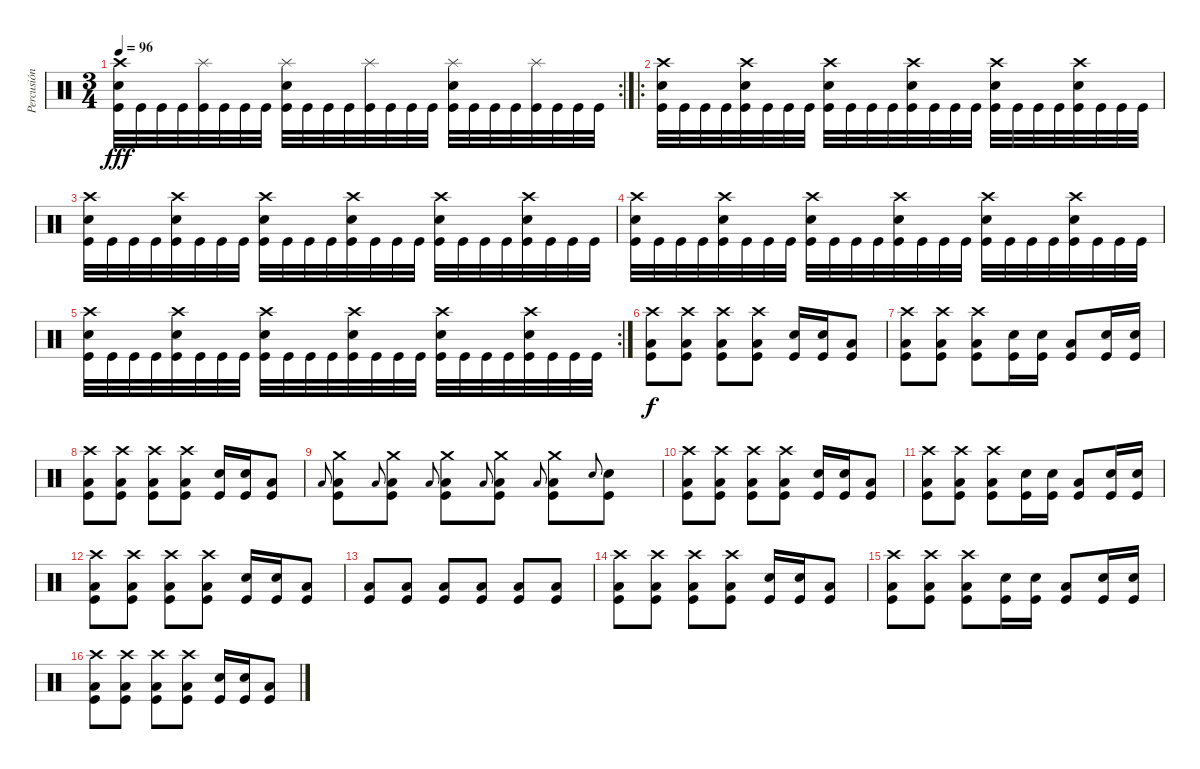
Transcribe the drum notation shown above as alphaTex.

\track ("Percusión" "Percusión") {instrument percussion}
\staff {score}
\articulation defaults
\rc 2
\ts (3 4)
\tempo 96
\clef neutral
\ks c
("Crash high (hit)" "Snare (hit) 2" "Kick (hit)").32{dy fff} "Kick (hit)".32 "Kick (hit)".32 "Kick (hit)".32 ("Splash (hit)" "Kick (hit)").32 "Kick (hit)".32 "Kick (hit)".32 "Kick (hit)".32 ("Splash (hit)" "Snare (hit) 2" "Kick (hit)").32 "Kick (hit)".32 "Kick (hit)".32 "Kick (hit)".32 ("Splash (hit)" "Kick (hit)").32 "Kick (hit)".32 "Kick (hit)".32 "Kick (hit)".32 ("Splash (hit)" "Snare (hit) 2" "Kick (hit)").32 "Kick (hit)".32 "Kick (hit)".32 "Kick (hit)".32 ("Splash (hit)" "Kick (hit)").32 "Kick (hit)".32 "Kick (hit)".32 "Kick (hit)".32 |
\ro
("Crash high (hit)" "Snare (hit) 2" "Kick (hit)").32 "Kick (hit)".32 "Kick (hit)".32 "Kick (hit)".32 ("Crash high (hit)" "Snare (hit) 2" "Kick (hit)").32 "Kick (hit)".32 "Kick (hit)".32 "Kick (hit)".32 ("Crash high (hit)" "Snare (hit) 2" "Kick (hit)").32 "Kick (hit)".32 "Kick (hit)".32 "Kick (hit)".32 ("Crash high (hit)" "Snare (hit) 2" "Kick (hit)").32 "Kick (hit)".32 "Kick (hit)".32 "Kick (hit)".32 ("Crash high (hit)" "Snare (hit) 2" "Kick (hit)").32 "Kick (hit)".32 "Kick (hit)".32 "Kick (hit)".32 ("Crash high (hit)" "Snare (hit) 2" "Kick (hit)").32 "Kick (hit)".32 "Kick (hit)".32 "Kick (hit)".32 |
("Crash high (hit)" "Snare (hit) 2" "Kick (hit)").32 "Kick (hit)".32 "Kick (hit)".32 "Kick (hit)".32 ("Crash high (hit)" "Snare (hit) 2" "Kick (hit)").32 "Kick (hit)".32 "Kick (hit)".32 "Kick (hit)".32 ("Crash high (hit)" "Snare (hit) 2" "Kick (hit)").32 "Kick (hit)".32 "Kick (hit)".32 "Kick (hit)".32 ("Crash high (hit)" "Snare (hit) 2" "Kick (hit)").32 "Kick (hit)".32 "Kick (hit)".32 "Kick (hit)".32 ("Crash high (hit)" "Snare (hit) 2" "Kick (hit)").32 "Kick (hit)".32 "Kick (hit)".32 "Kick (hit)".32 ("Crash high (hit)" "Snare (hit) 2" "Kick (hit)").32 "Kick (hit)".32 "Kick (hit)".32 "Kick (hit)".32 |
("Crash high (hit)" "Snare (hit) 2" "Kick (hit)").32 "Kick (hit)".32 "Kick (hit)".32 "Kick (hit)".32 ("Crash high (hit)" "Snare (hit) 2" "Kick (hit)").32 "Kick (hit)".32 "Kick (hit)".32 "Kick (hit)".32 ("Crash high (hit)" "Snare (hit) 2" "Kick (hit)").32 "Kick (hit)".32 "Kick (hit)".32 "Kick (hit)".32 ("Crash high (hit)" "Snare (hit) 2" "Kick (hit)").32 "Kick (hit)".32 "Kick (hit)".32 "Kick (hit)".32 ("Crash high (hit)" "Snare (hit) 2" "Kick (hit)").32 "Kick (hit)".32 "Kick (hit)".32 "Kick (hit)".32 ("Crash high (hit)" "Snare (hit) 2" "Kick (hit)").32 "Kick (hit)".32 "Kick (hit)".32 "Kick (hit)".32 |
\rc 2
("Crash high (hit)" "Snare (hit) 2" "Kick (hit)").32 "Kick (hit)".32 "Kick (hit)".32 "Kick (hit)".32 ("Crash high (hit)" "Snare (hit) 2" "Kick (hit)").32 "Kick (hit)".32 "Kick (hit)".32 "Kick (hit)".32 ("Crash high (hit)" "Snare (hit) 2" "Kick (hit)").32 "Kick (hit)".32 "Kick (hit)".32 "Kick (hit)".32 ("Crash high (hit)" "Snare (hit) 2" "Kick (hit)").32 "Kick (hit)".32 "Kick (hit)".32 "Kick (hit)".32 ("Crash high (hit)" "Snare (hit) 2" "Kick (hit)").32 "Kick (hit)".32 "Kick (hit)".32 "Kick (hit)".32 ("Crash high (hit)" "Snare (hit) 2" "Kick (hit)").32 "Kick (hit)".32 "Kick (hit)".32 "Kick (hit)".32 |
("Crash high (hit)" "Low Floor Tom (hit)" "Kick (hit)").8{dy f} ("Crash high (hit)" "Low Floor Tom (hit)" "Kick (hit)").8 ("Crash high (hit)" "Low Floor Tom (hit)" "Kick (hit)").8 ("Crash high (hit)" "Low Floor Tom (hit)" "Kick (hit)").8 ("Snare (hit) 2" "Kick (hit)").16 ("Snare (hit) 2" "Kick (hit)").16 ("Low Floor Tom (hit)" "Kick (hit)").8 |
("Crash high (hit)" "Low Floor Tom (hit)" "Kick (hit)").8 ("Crash high (hit)" "Low Floor Tom (hit)" "Kick (hit)").8 ("Crash high (hit)" "Low Floor Tom (hit)" "Kick (hit)").8 ("Snare (hit) 2" "Kick (hit)").16 ("Snare (hit) 2" "Kick (hit)").16 ("Low Floor Tom (hit)" "Kick (hit)").8 ("Snare (hit) 2" "Kick (hit)").16 ("Snare (hit) 2" "Kick (hit)").16 |
("Crash high (hit)" "Low Floor Tom (hit)" "Kick (hit)").8 ("Crash high (hit)" "Low Floor Tom (hit)" "Kick (hit)").8 ("Crash high (hit)" "Low Floor Tom (hit)" "Kick (hit)").8 ("Crash high (hit)" "Low Floor Tom (hit)" "Kick (hit)").8 ("Snare (hit) 2" "Kick (hit)").16 ("Snare (hit) 2" "Kick (hit)").16 ("Low Floor Tom (hit)" "Kick (hit)").8 |
"Low Floor Tom (hit)".8{gr onbeat} ("Crash medium (hit)" "Low Floor Tom (hit)" "Kick (hit)").8 "Low Floor Tom (hit)".8{gr onbeat} ("Crash medium (hit)" "Low Floor Tom (hit)" "Kick (hit)").8 "Low Floor Tom (hit)".8{gr onbeat} ("Crash medium (hit)" "Low Floor Tom (hit)" "Kick (hit)").8 "Low Floor Tom (hit)".8{gr onbeat} ("Crash medium (hit)" "Low Floor Tom (hit)" "Kick (hit)").8 "Low Floor Tom (hit)".8{gr onbeat} ("Crash medium (hit)" "Low Floor Tom (hit)" "Kick (hit)").8 "Snare (hit) 2".8{gr onbeat} ("Snare (hit) 2" "Kick (hit)").8 |
("Crash high (hit)" "Low Floor Tom (hit)" "Kick (hit)").8 ("Crash high (hit)" "Low Floor Tom (hit)" "Kick (hit)").8 ("Crash high (hit)" "Low Floor Tom (hit)" "Kick (hit)").8 ("Crash high (hit)" "Low Floor Tom (hit)" "Kick (hit)").8 ("Snare (hit) 2" "Kick (hit)").16 ("Snare (hit) 2" "Kick (hit)").16 ("Low Floor Tom (hit)" "Kick (hit)").8 |
("Crash high (hit)" "Low Floor Tom (hit)" "Kick (hit)").8 ("Crash high (hit)" "Low Floor Tom (hit)" "Kick (hit)").8 ("Crash high (hit)" "Low Floor Tom (hit)" "Kick (hit)").8 ("Snare (hit) 2" "Kick (hit)").16 ("Snare (hit) 2" "Kick (hit)").16 ("Low Floor Tom (hit)" "Kick (hit)").8 ("Snare (hit) 2" "Kick (hit)").16 ("Snare (hit) 2" "Kick (hit)").16 |
("Crash high (hit)" "Low Floor Tom (hit)" "Kick (hit)").8 ("Crash high (hit)" "Low Floor Tom (hit)" "Kick (hit)").8 ("Crash high (hit)" "Low Floor Tom (hit)" "Kick (hit)").8 ("Crash high (hit)" "Low Floor Tom (hit)" "Kick (hit)").8 ("Snare (hit) 2" "Kick (hit)").16 ("Snare (hit) 2" "Kick (hit)").16 ("Low Floor Tom (hit)" "Kick (hit)").8 |
("Low Floor Tom (hit)" "Kick (hit)").8 ("Low Floor Tom (hit)" "Kick (hit)").8 ("Low Floor Tom (hit)" "Kick (hit)").8 ("Low Floor Tom (hit)" "Kick (hit)").8 ("Low Floor Tom (hit)" "Kick (hit)").8 ("Low Floor Tom (hit)" "Kick (hit)").8 |
("Crash high (hit)" "Low Floor Tom (hit)" "Kick (hit)").8 ("Crash high (hit)" "Low Floor Tom (hit)" "Kick (hit)").8 ("Crash high (hit)" "Low Floor Tom (hit)" "Kick (hit)").8 ("Crash high (hit)" "Low Floor Tom (hit)" "Kick (hit)").8 ("Snare (hit) 2" "Kick (hit)").16 ("Snare (hit) 2" "Kick (hit)").16 ("Low Floor Tom (hit)" "Kick (hit)").8 |
("Crash high (hit)" "Low Floor Tom (hit)" "Kick (hit)").8 ("Crash high (hit)" "Low Floor Tom (hit)" "Kick (hit)").8 ("Crash high (hit)" "Low Floor Tom (hit)" "Kick (hit)").8 ("Snare (hit) 2" "Kick (hit)").16 ("Snare (hit) 2" "Kick (hit)").16 ("Low Floor Tom (hit)" "Kick (hit)").8 ("Snare (hit) 2" "Kick (hit)").16 ("Snare (hit) 2" "Kick (hit)").16 |
("Crash high (hit)" "Low Floor Tom (hit)" "Kick (hit)").8 ("Crash high (hit)" "Low Floor Tom (hit)" "Kick (hit)").8 ("Crash high (hit)" "Low Floor Tom (hit)" "Kick (hit)").8 ("Crash high (hit)" "Low Floor Tom (hit)" "Kick (hit)").8 ("Snare (hit) 2" "Kick (hit)").16 ("Snare (hit) 2" "Kick (hit)").16 ("Low Floor Tom (hit)" "Kick (hit)").8
